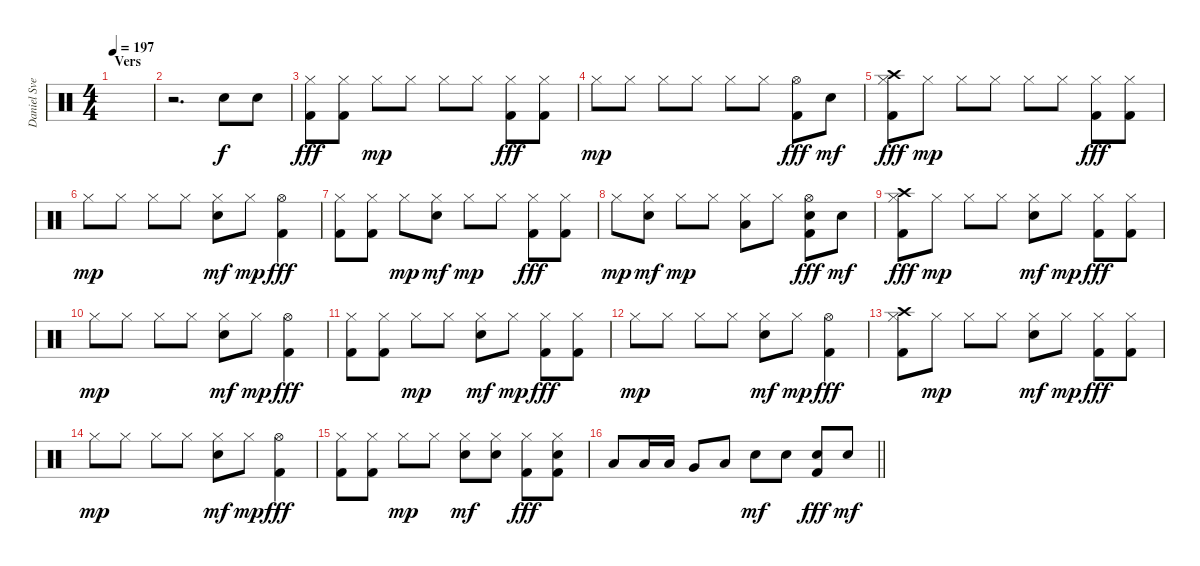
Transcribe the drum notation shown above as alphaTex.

\track ("Daniel Svensson" "Daniel Sve") {instrument percussion}
\staff {score}
\articulation defaults
\ts (4 4)
\section ("" "Vers")
\tempo 197
\clef neutral
\ks c
|
r.2{d} "Electric Snare (hit)".8 "Electric Snare (hit)".8 |
("Hi-Hat (closed)" "Kick (hit) 2").8{dy fff} ("Hi-Hat (closed)" "Kick (hit) 2").8 "Hi-Hat (closed)".8{dy mp} "Hi-Hat (closed)".8 "Hi-Hat (closed)".8 "Hi-Hat (closed)".8 ("Hi-Hat (closed)" "Kick (hit) 2").8{dy fff} ("Hi-Hat (closed)" "Kick (hit) 2").8 |
"Hi-Hat (closed)".8{dy mp} "Hi-Hat (closed)".8 "Hi-Hat (closed)".8 "Hi-Hat (closed)".8 "Hi-Hat (closed)".8 "Hi-Hat (closed)".8 ("Hi-Hat (open)" "Kick (hit) 2").8{dy fff} "Electric Snare (hit)".8{dy mf} |
("Crash high (hit)" "Hi-Hat (closed)" "Kick (hit) 2").8{dy fff} "Hi-Hat (closed)".8{dy mp} "Hi-Hat (closed)".8 "Hi-Hat (closed)".8 "Hi-Hat (closed)".8 "Hi-Hat (closed)".8 ("Hi-Hat (closed)" "Kick (hit) 2").8{dy fff} ("Hi-Hat (closed)" "Kick (hit) 2").8 |
"Hi-Hat (closed)".8{dy mp} "Hi-Hat (closed)".8 "Hi-Hat (closed)".8 "Hi-Hat (closed)".8 ("Hi-Hat (closed)" "Electric Snare (hit)").8{dy mf} "Hi-Hat (closed)".8{dy mp} ("Hi-Hat (open)" "Kick (hit) 2").4{dy fff} |
("Hi-Hat (closed)" "Kick (hit) 2").8 ("Hi-Hat (closed)" "Kick (hit) 2").8 "Hi-Hat (closed)".8{dy mp} ("Hi-Hat (closed)" "Electric Snare (hit)").8{dy mf} "Hi-Hat (closed)".8{dy mp} "Hi-Hat (closed)".8 ("Hi-Hat (closed)" "Kick (hit) 2").8{dy fff} ("Hi-Hat (closed)" "Kick (hit) 2").8 |
"Hi-Hat (closed)".8{dy mp} ("Hi-Hat (closed)" "Electric Snare (hit)").8{dy mf} "Hi-Hat (closed)".8{dy mp} "Hi-Hat (closed)".8 ("Low Tom (hit)" "Hi-Hat (closed)").8 "Hi-Hat (closed)".8 ("Hi-Hat (open)" "Electric Snare (hit)" "Kick (hit) 2").8{dy fff} "Electric Snare (hit)".8{dy mf} |
("Crash high (hit)" "Hi-Hat (closed)" "Kick (hit) 2").8{dy fff} "Hi-Hat (closed)".8{dy mp} "Hi-Hat (closed)".8 "Hi-Hat (closed)".8 ("Hi-Hat (closed)" "Electric Snare (hit)").8{dy mf} "Hi-Hat (closed)".8{dy mp} ("Hi-Hat (closed)" "Kick (hit) 2").8{dy fff} ("Hi-Hat (closed)" "Kick (hit) 2").8 |
"Hi-Hat (closed)".8{dy mp} "Hi-Hat (closed)".8 "Hi-Hat (closed)".8 "Hi-Hat (closed)".8 ("Hi-Hat (closed)" "Electric Snare (hit)").8{dy mf} "Hi-Hat (closed)".8{dy mp} ("Hi-Hat (open)" "Kick (hit) 2").4{dy fff} |
("Hi-Hat (closed)" "Kick (hit) 2").8 ("Hi-Hat (closed)" "Kick (hit) 2").8 "Hi-Hat (closed)".8{dy mp} "Hi-Hat (closed)".8 ("Hi-Hat (closed)" "Electric Snare (hit)").8{dy mf} "Hi-Hat (closed)".8{dy mp} ("Hi-Hat (closed)" "Kick (hit) 2").8{dy fff} ("Hi-Hat (closed)" "Kick (hit) 2").8 |
"Hi-Hat (closed)".8{dy mp} "Hi-Hat (closed)".8 "Hi-Hat (closed)".8 "Hi-Hat (closed)".8 ("Hi-Hat (closed)" "Electric Snare (hit)").8{dy mf} "Hi-Hat (closed)".8{dy mp} ("Hi-Hat (open)" "Kick (hit) 2").4{dy fff} |
("Crash high (hit)" "Hi-Hat (closed)" "Kick (hit) 2").8 "Hi-Hat (closed)".8{dy mp} "Hi-Hat (closed)".8 "Hi-Hat (closed)".8 ("Hi-Hat (closed)" "Electric Snare (hit)").8{dy mf} "Hi-Hat (closed)".8{dy mp} ("Hi-Hat (closed)" "Kick (hit) 2").8{dy fff} ("Hi-Hat (closed)" "Kick (hit) 2").8 |
"Hi-Hat (closed)".8{dy mp} "Hi-Hat (closed)".8 "Hi-Hat (closed)".8 "Hi-Hat (closed)".8 ("Hi-Hat (closed)" "Electric Snare (hit)").8{dy mf} "Hi-Hat (closed)".8{dy mp} ("Hi-Hat (open)" "Kick (hit) 2").4{dy fff} |
("Hi-Hat (closed)" "Kick (hit) 2").8 ("Hi-Hat (closed)" "Kick (hit) 2").8 "Hi-Hat (closed)".8{dy mp} "Hi-Hat (closed)".8 ("Hi-Hat (closed)" "Electric Snare (hit)").8{dy mf} ("Hi-Hat (closed)" "Electric Snare (hit)").8 ("Hi-Hat (closed)" "Kick (hit) 2").8{dy fff} ("Hi-Hat (closed)" "Electric Snare (hit)" "Kick (hit) 2").8 |
\barLineRight lightlight "Low Tom (hit)".8 "Low Tom (hit)".16 "Low Tom (hit)".16 "Very Low Tom (hit)".8 "Low Floor Tom (hit)".8 "Electric Snare (hit)".8{dy mf} "Electric Snare (hit)".8
("Electric Snare (hit)" "Kick (hit) 2").8{dy fff} "Electric Snare (hit)".8{dy mf}
